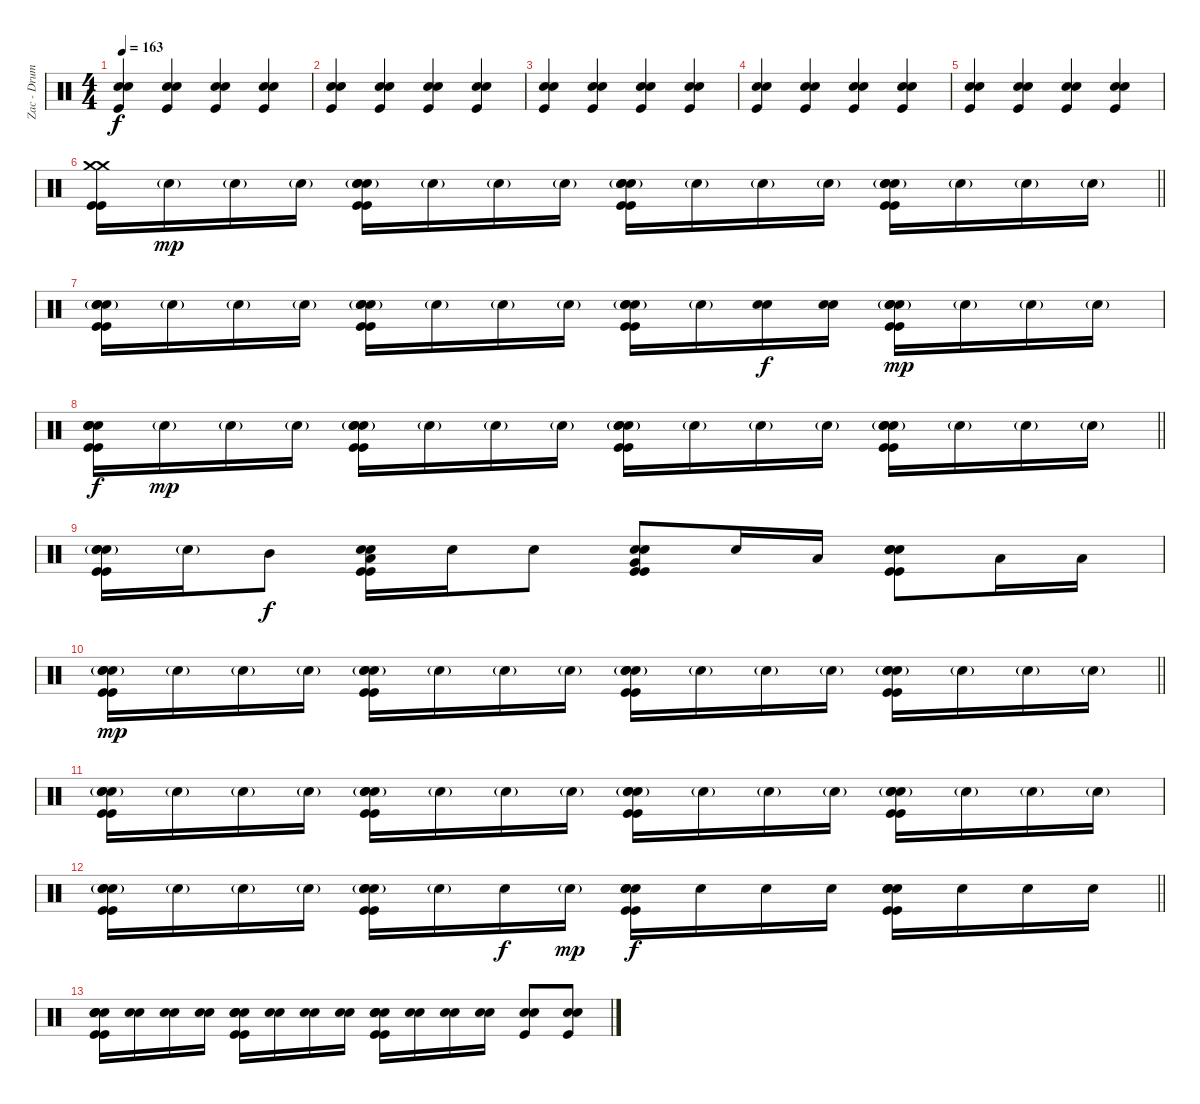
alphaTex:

\track ("Zac - Drums" "Zac - Drum") {instrument percussion}
\staff {score}
\articulation defaults
\ts (4 4)
\tempo 163
\clef neutral
\ks c
("Hand Clap (hit)" "Hand Clap (hit)" "Kick (hit)").4{dy f} ("Hand Clap (hit)" "Hand Clap (hit)" "Kick (hit)").4 ("Hand Clap (hit)" "Hand Clap (hit)" "Kick (hit)").4 ("Hand Clap (hit)" "Hand Clap (hit)" "Kick (hit)").4 |
("Hand Clap (hit)" "Hand Clap (hit)" "Kick (hit)").4 ("Hand Clap (hit)" "Hand Clap (hit)" "Kick (hit)").4 ("Hand Clap (hit)" "Hand Clap (hit)" "Kick (hit)").4 ("Hand Clap (hit)" "Hand Clap (hit)" "Kick (hit)").4 |
("Hand Clap (hit)" "Hand Clap (hit)" "Kick (hit)").4 ("Hand Clap (hit)" "Hand Clap (hit)" "Kick (hit)").4 ("Hand Clap (hit)" "Hand Clap (hit)" "Kick (hit)").4 ("Hand Clap (hit)" "Hand Clap (hit)" "Kick (hit)").4 |
("Hand Clap (hit)" "Hand Clap (hit)" "Kick (hit)").4 ("Hand Clap (hit)" "Hand Clap (hit)" "Kick (hit)").4 ("Hand Clap (hit)" "Hand Clap (hit)" "Kick (hit)").4 ("Hand Clap (hit)" "Hand Clap (hit)" "Kick (hit)").4 |
("Hand Clap (hit)" "Hand Clap (hit)" "Kick (hit)").4 ("Hand Clap (hit)" "Hand Clap (hit)" "Kick (hit)").4 ("Hand Clap (hit)" "Hand Clap (hit)" "Kick (hit)").4 ("Hand Clap (hit)" "Hand Clap (hit)" "Kick (hit)").4 |
\barLineRight lightlight
("Crash medium (hit)" "Crash medium (hit)" "Kick (hit)" "Kick (hit)").16 "Electric Snare (hit)"{g}.16{dy mp} "Electric Snare (hit)"{g}.16 "Electric Snare (hit)"{g}.16 ("Hand Clap (hit)" "Hand Clap (hit)" "Electric Snare (hit)"{g} "Kick (hit)" "Kick (hit)").16 "Electric Snare (hit)"{g}.16 "Electric Snare (hit)"{g}.16 "Electric Snare (hit)"{g}.16 ("Hand Clap (hit)" "Hand Clap (hit)" "Electric Snare (hit)"{g} "Kick (hit)" "Kick (hit)").16 "Electric Snare (hit)"{g}.16 "Electric Snare (hit)"{g}.16 "Electric Snare (hit)"{g}.16 ("Hand Clap (hit)" "Hand Clap (hit)" "Electric Snare (hit)"{g} "Kick (hit)" "Kick (hit)").16 "Electric Snare (hit)"{g}.16 "Electric Snare (hit)"{g}.16 "Electric Snare (hit)"{g}.16 |
("Hand Clap (hit)" "Hand Clap (hit)" "Electric Snare (hit)"{g} "Kick (hit)" "Kick (hit)").16 "Electric Snare (hit)"{g}.16 "Electric Snare (hit)"{g}.16 "Electric Snare (hit)"{g}.16 ("Hand Clap (hit)" "Hand Clap (hit)" "Electric Snare (hit)"{g} "Kick (hit)" "Kick (hit)").16 "Electric Snare (hit)"{g}.16 "Electric Snare (hit)"{g}.16 "Electric Snare (hit)"{g}.16 ("Hand Clap (hit)" "Hand Clap (hit)" "Electric Snare (hit)"{g} "Kick (hit)" "Kick (hit)").16 "Electric Snare (hit)"{g}.16 ("Electric Snare (hit)" "Electric Snare (hit)").16{dy f} ("Electric Snare (hit)" "Electric Snare (hit)").16 ("Hand Clap (hit)" "Hand Clap (hit)" "Electric Snare (hit)"{g} "Kick (hit)" "Kick (hit)").16{dy mp} "Electric Snare (hit)"{g}.16 "Electric Snare (hit)"{g}.16 "Electric Snare (hit)"{g}.16 |
\barLineRight lightlight
("Hand Clap (hit)" "Hand Clap (hit)" "Electric Snare (hit)" "Electric Snare (hit)" "Kick (hit)" "Kick (hit)").16{dy f} "Electric Snare (hit)"{g}.16{dy mp} "Electric Snare (hit)"{g}.16 "Electric Snare (hit)"{g}.16 ("Hand Clap (hit)" "Hand Clap (hit)" "Electric Snare (hit)"{g} "Kick (hit)" "Kick (hit)").16 "Electric Snare (hit)"{g}.16 "Electric Snare (hit)"{g}.16 "Electric Snare (hit)"{g}.16 ("Hand Clap (hit)" "Hand Clap (hit)" "Electric Snare (hit)"{g} "Kick (hit)" "Kick (hit)").16 "Electric Snare (hit)"{g}.16 "Electric Snare (hit)"{g}.16 "Electric Snare (hit)"{g}.16 ("Hand Clap (hit)" "Hand Clap (hit)" "Electric Snare (hit)"{g} "Kick (hit)" "Kick (hit)").16 "Electric Snare (hit)"{g}.16 "Electric Snare (hit)"{g}.16 "Electric Snare (hit)"{g}.16 |
("Hand Clap (hit)" "Hand Clap (hit)" "Electric Snare (hit)"{g} "Kick (hit)" "Kick (hit)").16 "Electric Snare (hit)"{g}.16 "Mid Tom (hit)".8{dy f} ("Hand Clap (hit)" "Hand Clap (hit)" "Low Tom (hit)" "Kick (hit)" "Kick (hit)").16 "Electric Snare (hit)".16 "Snare (hit)".8 ("Hand Clap (hit)" "Hand Clap (hit)" "Very Low Tom (hit)" "Kick (hit)" "Kick (hit)").8 "Snare (hit)".16 "Low Tom (hit)".16 ("Hand Clap (hit)" "Hand Clap (hit)" "Electric Snare (hit)" "Kick (hit)" "Kick (hit)").8 "Low Floor Tom (hit)".16 "Low Floor Tom (hit)".16 |
\barLineRight lightlight
("Hand Clap (hit)" "Hand Clap (hit)" "Electric Snare (hit)"{g} "Kick (hit)" "Kick (hit)").16{dy mp} "Electric Snare (hit)"{g}.16 "Electric Snare (hit)"{g}.16 "Electric Snare (hit)"{g}.16 ("Hand Clap (hit)" "Hand Clap (hit)" "Electric Snare (hit)"{g} "Kick (hit)" "Kick (hit)").16 "Electric Snare (hit)"{g}.16 "Electric Snare (hit)"{g}.16 "Electric Snare (hit)"{g}.16 ("Hand Clap (hit)" "Hand Clap (hit)" "Electric Snare (hit)"{g} "Kick (hit)" "Kick (hit)").16 "Electric Snare (hit)"{g}.16 "Electric Snare (hit)"{g}.16 "Electric Snare (hit)"{g}.16 ("Hand Clap (hit)" "Hand Clap (hit)" "Electric Snare (hit)"{g} "Kick (hit)" "Kick (hit)").16 "Electric Snare (hit)"{g}.16 "Electric Snare (hit)"{g}.16 "Electric Snare (hit)"{g}.16 |
("Hand Clap (hit)" "Hand Clap (hit)" "Electric Snare (hit)"{g} "Kick (hit)" "Kick (hit)").16 "Electric Snare (hit)"{g}.16 "Electric Snare (hit)"{g}.16 "Electric Snare (hit)"{g}.16 ("Hand Clap (hit)" "Hand Clap (hit)" "Electric Snare (hit)"{g} "Kick (hit)" "Kick (hit)").16 "Electric Snare (hit)"{g}.16 "Electric Snare (hit)"{g}.16 "Electric Snare (hit)"{g}.16 ("Hand Clap (hit)" "Hand Clap (hit)" "Electric Snare (hit)"{g} "Kick (hit)" "Kick (hit)").16 "Electric Snare (hit)"{g}.16 "Electric Snare (hit)"{g}.16 "Electric Snare (hit)"{g}.16 ("Hand Clap (hit)" "Hand Clap (hit)" "Electric Snare (hit)"{g} "Kick (hit)" "Kick (hit)").16 "Electric Snare (hit)"{g}.16 "Electric Snare (hit)"{g}.16 "Electric Snare (hit)"{g}.16 |
\barLineRight lightlight
("Hand Clap (hit)" "Hand Clap (hit)" "Electric Snare (hit)"{g} "Kick (hit)" "Kick (hit)").16 "Electric Snare (hit)"{g}.16 "Electric Snare (hit)"{g}.16 "Electric Snare (hit)"{g}.16 ("Hand Clap (hit)" "Hand Clap (hit)" "Electric Snare (hit)"{g} "Kick (hit)" "Kick (hit)").16 "Electric Snare (hit)"{g}.16 "Electric Snare (hit)".16{dy f} "Electric Snare (hit)"{g}.16{dy mp} ("Hand Clap (hit)" "Hand Clap (hit)" "Electric Snare (hit)" "Kick (hit)" "Kick (hit)").16{dy f} "Electric Snare (hit)".16 "Electric Snare (hit)".16 "Electric Snare (hit)".16 ("Hand Clap (hit)" "Hand Clap (hit)" "Electric Snare (hit)" "Kick (hit)" "Kick (hit)").16 "Electric Snare (hit)".16 "Electric Snare (hit)".16 "Electric Snare (hit)".16 |
("Hand Clap (hit)" "Hand Clap (hit)" "Electric Snare (hit)" "Electric Snare (hit)" "Kick (hit)" "Kick (hit)").16 ("Electric Snare (hit)" "Electric Snare (hit)").16 ("Electric Snare (hit)" "Electric Snare (hit)").16 ("Electric Snare (hit)" "Electric Snare (hit)").16 ("Hand Clap (hit)" "Hand Clap (hit)" "Electric Snare (hit)" "Electric Snare (hit)" "Kick (hit)" "Kick (hit)").16 ("Electric Snare (hit)" "Electric Snare (hit)").16 ("Electric Snare (hit)" "Electric Snare (hit)").16 ("Electric Snare (hit)" "Electric Snare (hit)").16 ("Hand Clap (hit)" "Hand Clap (hit)" "Electric Snare (hit)" "Electric Snare (hit)" "Kick (hit)" "Kick (hit)").16 ("Electric Snare (hit)" "Electric Snare (hit)").16 ("Electric Snare (hit)" "Electric Snare (hit)").16 ("Electric Snare (hit)" "Electric Snare (hit)").16 ("Electric Snare (hit)" "Electric Snare (hit)" "Kick (hit)").8 ("Electric Snare (hit)" "Electric Snare (hit)" "Kick (hit)").8
